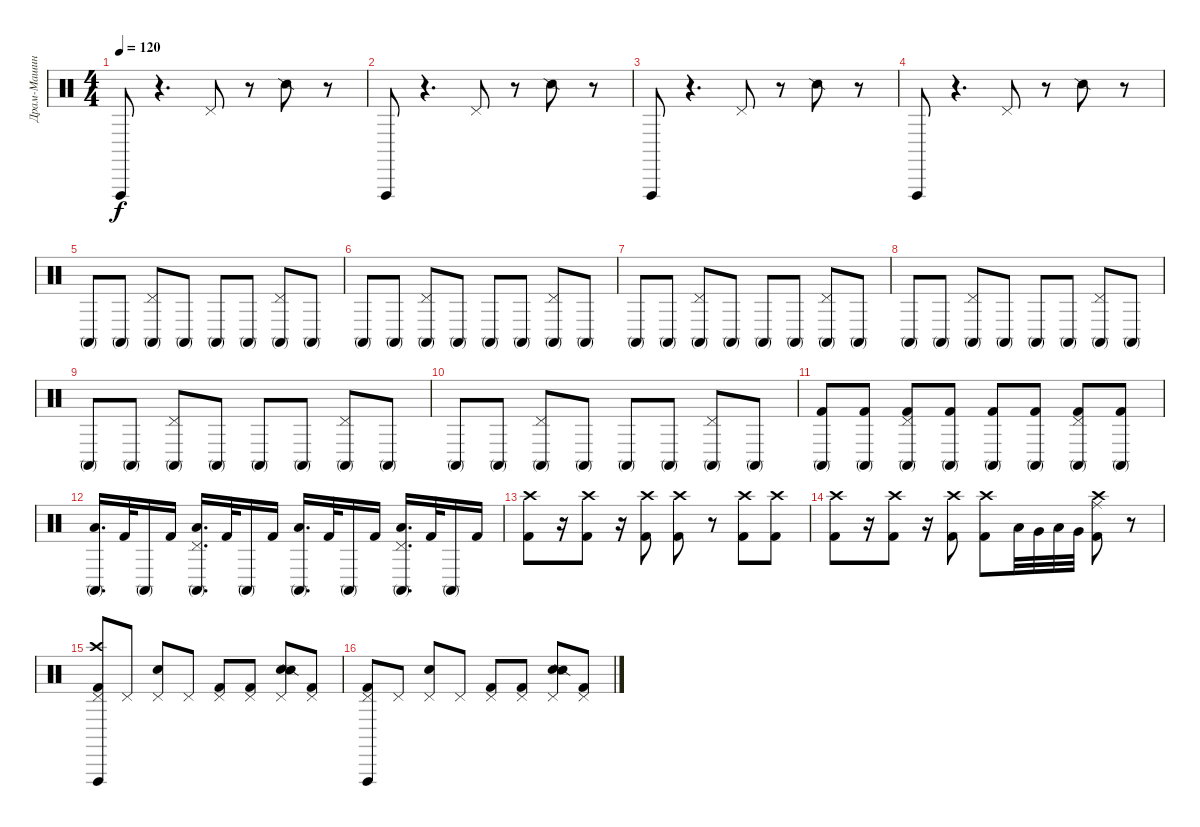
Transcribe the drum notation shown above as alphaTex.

\track ("Драм-Машина" "Драм-Машин") {instrument percussion}
\staff {score}
\articulation defaults
\ts (4 4)
\tempo 120
\clef neutral
\ks c "Vibraslap (hit)".8{dy f}
r.4{d} "Pedal Hi-Hat (hit)".8 r.8 "Snare (side stick) 2".8 r.8 |
"Vibraslap (hit)".8 r.4{d} "Pedal Hi-Hat (hit)".8 r.8 "Snare (side stick) 2".8 r.8 |
"Vibraslap (hit)".8 r.4{d} "Pedal Hi-Hat (hit)".8 r.8 "Snare (side stick) 2".8 r.8 |
"Vibraslap (hit)".8 r.4{d} "Pedal Hi-Hat (hit)".8 r.8 "Snare (side stick) 2".8 r.8 |
"Conga high (mute)".8 "Conga high (mute)".8 ("Pedal Hi-Hat (hit)" "Conga high (mute)").8 "Conga high (mute)".8 "Conga high (mute)".8 "Conga high (mute)".8 ("Pedal Hi-Hat (hit)" "Conga high (mute)").8 "Conga high (mute)".8 |
"Conga high (mute)".8 "Conga high (mute)".8 ("Pedal Hi-Hat (hit)" "Conga high (mute)").8 "Conga high (mute)".8 "Conga high (mute)".8 "Conga high (mute)".8 ("Pedal Hi-Hat (hit)" "Conga high (mute)").8 "Conga high (mute)".8 |
"Conga high (mute)".8 "Conga high (mute)".8 ("Pedal Hi-Hat (hit)" "Conga high (mute)").8 "Conga high (mute)".8 "Conga high (mute)".8 "Conga high (mute)".8 ("Pedal Hi-Hat (hit)" "Conga high (mute)").8 "Conga high (mute)".8 |
"Conga high (mute)".8 "Conga high (mute)".8 ("Pedal Hi-Hat (hit)" "Conga high (mute)").8 "Conga high (mute)".8 "Conga high (mute)".8 "Conga high (mute)".8 ("Pedal Hi-Hat (hit)" "Conga high (mute)").8 "Conga high (mute)".8 |
"Conga high (mute)".8 "Conga high (mute)".8 ("Pedal Hi-Hat (hit)" "Conga high (mute)").8 "Conga high (mute)".8 "Conga high (mute)".8 "Conga high (mute)".8 ("Pedal Hi-Hat (hit)" "Conga high (mute)").8 "Conga high (mute)".8 |
"Conga high (mute)".8 "Conga high (mute)".8 ("Pedal Hi-Hat (hit)" "Conga high (mute)").8 "Conga high (mute)".8 "Conga high (mute)".8 "Conga high (mute)".8 ("Pedal Hi-Hat (hit)" "Conga high (mute)").8 "Conga high (mute)".8 |
("Kick (hit) 2" "Conga high (mute)").8 ("Conga high (mute)" "Kick (hit) 2").8 ("Kick (hit) 2" "Pedal Hi-Hat (hit)" "Conga high (mute)").8 ("Conga high (mute)" "Kick (hit) 2").8 ("Kick (hit) 2" "Conga high (mute)").8 ("Conga high (mute)" "Kick (hit) 2").8 ("Kick (hit) 2" "Pedal Hi-Hat (hit)" "Conga high (mute)").8 ("Conga high (mute)" "Kick (hit) 2").8 |
("Low Floor Tom (hit)" "Conga high (mute)").16{d} "Kick (hit) 2".32 "Conga high (mute)".16 "Kick (hit) 2".16 ("Low Floor Tom (hit)" "Pedal Hi-Hat (hit)" "Conga high (mute)").16{d} "Kick (hit) 2".32 "Conga high (mute)".16 "Kick (hit) 2".16 ("Low Floor Tom (hit)" "Conga high (mute)").16{d} "Kick (hit) 2".32 "Conga high (mute)".16 "Kick (hit) 2".16 ("Low Floor Tom (hit)" "Pedal Hi-Hat (hit)" "Conga high (mute)").16{d} "Kick (hit) 2".32 "Conga high (mute)".16 "Kick (hit) 2".16 |
("Kick (hit) 2" "Crash high (hit)").8 r.16 ("Kick (hit) 2" "Crash high (hit)").8 r.16 ("Kick (hit) 2" "Crash high (hit)").8 ("Kick (hit) 2" "Crash high (hit)").8 r.8 ("Kick (hit) 2" "Crash high (hit)").8 ("Kick (hit) 2" "Crash high (hit)").8 |
("Crash high (hit)" "Kick (hit) 2").8 r.16 ("Crash high (hit)" "Kick (hit) 2").8 r.16 ("Crash high (hit)" "Kick (hit) 2").8 ("Crash high (hit)" "Kick (hit) 2").8 "Low Floor Tom (hit)".32 "Very Low Tom (hit)".32 "Low Floor Tom (hit)".32 "Very Low Tom (hit)".32 ("Ride (middle)" "Crash high (hit)" "Kick (hit) 2").8 r.8 |
("Crash high (hit)" "Kick (hit) 2" "Pedal Hi-Hat (hit)" "Vibraslap (hit)").8 "Pedal Hi-Hat (hit)".8 ("Electric Snare (hit)" "Pedal Hi-Hat (hit)").8 "Pedal Hi-Hat (hit)".8 ("Kick (hit) 2" "Pedal Hi-Hat (hit)").8 ("Kick (hit) 2" "Pedal Hi-Hat (hit)").8 ("Electric Snare (hit)" "Snare (side stick) 2" "Pedal Hi-Hat (hit)").8 ("Kick (hit) 2" "Pedal Hi-Hat (hit)").8 |
("Vibraslap (hit)" "Kick (hit) 2" "Pedal Hi-Hat (hit)").8 "Pedal Hi-Hat (hit)".8 ("Electric Snare (hit)" "Pedal Hi-Hat (hit)").8 "Pedal Hi-Hat (hit)".8 ("Kick (hit) 2" "Pedal Hi-Hat (hit)").8 ("Kick (hit) 2" "Pedal Hi-Hat (hit)").8 ("Electric Snare (hit)" "Snare (side stick) 2" "Pedal Hi-Hat (hit)").8 ("Kick (hit) 2" "Pedal Hi-Hat (hit)").8
